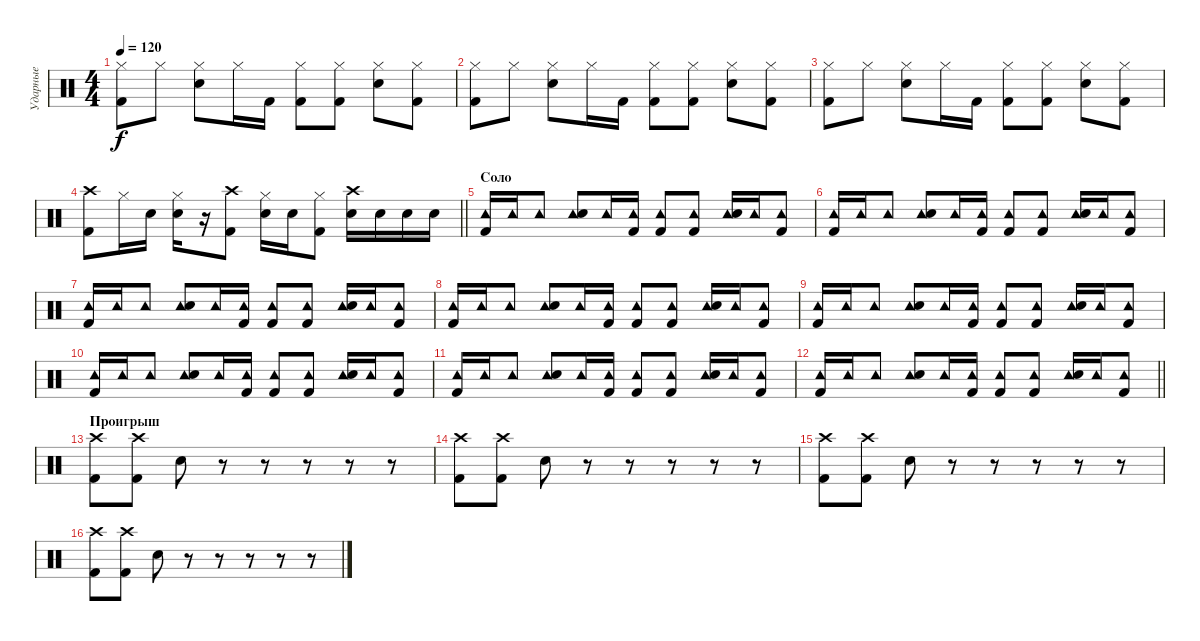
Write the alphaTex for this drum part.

\track ("Ударные" "Ударные") {instrument percussion}
\staff {score}
\articulation defaults
\ts (4 4)
\tempo 120
\clef neutral
\ks c
("Hi-Hat (closed)" "Kick (hit) 2").8{dy f} "Hi-Hat (closed)".8 ("Hi-Hat (closed)" "Snare (hit) 2").8 "Hi-Hat (closed)".16 "Kick (hit) 2".16 ("Hi-Hat (closed)" "Kick (hit) 2").8 ("Hi-Hat (closed)" "Kick (hit) 2").8 ("Hi-Hat (closed)" "Snare (hit) 2").8 ("Hi-Hat (closed)" "Kick (hit) 2").8 |
("Hi-Hat (closed)" "Kick (hit) 2").8 "Hi-Hat (closed)".8 ("Hi-Hat (closed)" "Snare (hit) 2").8 "Hi-Hat (closed)".16 "Kick (hit) 2".16 ("Hi-Hat (closed)" "Kick (hit) 2").8 ("Hi-Hat (closed)" "Kick (hit) 2").8 ("Hi-Hat (closed)" "Snare (hit) 2").8 ("Hi-Hat (closed)" "Kick (hit) 2").8 |
("Hi-Hat (closed)" "Kick (hit) 2").8 "Hi-Hat (closed)".8 ("Hi-Hat (closed)" "Snare (hit) 2").8 "Hi-Hat (closed)".16 "Kick (hit) 2".16 ("Hi-Hat (closed)" "Kick (hit) 2").8 ("Hi-Hat (closed)" "Kick (hit) 2").8 ("Hi-Hat (closed)" "Snare (hit) 2").8 ("Hi-Hat (closed)" "Kick (hit) 2").8 |
\barLineRight lightlight
("Crash high (hit)" "Kick (hit) 2").8 "Hi-Hat (closed)".16 "Snare (hit) 2".16 ("Hi-Hat (closed)" "Snare (hit) 2").16 r.16 ("Crash high (hit)" "Kick (hit) 2").8 ("Hi-Hat (closed)" "Snare (hit) 2").16 "Snare (hit) 2".16 ("Hi-Hat (closed)" "Kick (hit) 2").8 ("Crash high (hit)" "Snare (hit) 2").16 "Snare (hit) 2".16 "Snare (hit) 2".16 "Snare (hit) 2".16 |
\section ("" "Соло")
("Tambourine (hit)" "Kick (hit) 2").16 "Tambourine (hit)".16 "Tambourine (hit)".8 ("Tambourine (hit)" "Snare (hit) 2").8 "Tambourine (hit)".16 ("Tambourine (hit)" "Kick (hit) 2").16 ("Tambourine (hit)" "Kick (hit) 2").8 ("Tambourine (hit)" "Kick (hit) 2").8 ("Tambourine (hit)" "Snare (hit) 2").16 "Tambourine (hit)".16 ("Tambourine (hit)" "Kick (hit) 2").8 |
("Tambourine (hit)" "Kick (hit) 2").16 "Tambourine (hit)".16 "Tambourine (hit)".8 ("Tambourine (hit)" "Snare (hit) 2").8 "Tambourine (hit)".16 ("Tambourine (hit)" "Kick (hit) 2").16 ("Tambourine (hit)" "Kick (hit) 2").8 ("Tambourine (hit)" "Kick (hit) 2").8 ("Tambourine (hit)" "Snare (hit) 2").16 "Tambourine (hit)".16 ("Tambourine (hit)" "Kick (hit) 2").8 |
("Tambourine (hit)" "Kick (hit) 2").16 "Tambourine (hit)".16 "Tambourine (hit)".8 ("Tambourine (hit)" "Snare (hit) 2").8 "Tambourine (hit)".16 ("Tambourine (hit)" "Kick (hit) 2").16 ("Tambourine (hit)" "Kick (hit) 2").8 ("Tambourine (hit)" "Kick (hit) 2").8 ("Tambourine (hit)" "Snare (hit) 2").16 "Tambourine (hit)".16 ("Tambourine (hit)" "Kick (hit) 2").8 |
("Tambourine (hit)" "Kick (hit) 2").16 "Tambourine (hit)".16 "Tambourine (hit)".8 ("Tambourine (hit)" "Snare (hit) 2").8 "Tambourine (hit)".16 ("Tambourine (hit)" "Kick (hit) 2").16 ("Tambourine (hit)" "Kick (hit) 2").8 ("Tambourine (hit)" "Kick (hit) 2").8 ("Tambourine (hit)" "Snare (hit) 2").16 "Tambourine (hit)".16 ("Tambourine (hit)" "Kick (hit) 2").8 |
("Tambourine (hit)" "Kick (hit) 2").16 "Tambourine (hit)".16 "Tambourine (hit)".8 ("Tambourine (hit)" "Snare (hit) 2").8 "Tambourine (hit)".16 ("Tambourine (hit)" "Kick (hit) 2").16 ("Tambourine (hit)" "Kick (hit) 2").8 ("Tambourine (hit)" "Kick (hit) 2").8 ("Tambourine (hit)" "Snare (hit) 2").16 "Tambourine (hit)".16 ("Tambourine (hit)" "Kick (hit) 2").8 |
("Tambourine (hit)" "Kick (hit) 2").16 "Tambourine (hit)".16 "Tambourine (hit)".8 ("Tambourine (hit)" "Snare (hit) 2").8 "Tambourine (hit)".16 ("Tambourine (hit)" "Kick (hit) 2").16 ("Tambourine (hit)" "Kick (hit) 2").8 ("Tambourine (hit)" "Kick (hit) 2").8 ("Tambourine (hit)" "Snare (hit) 2").16 "Tambourine (hit)".16 ("Tambourine (hit)" "Kick (hit) 2").8 |
("Tambourine (hit)" "Kick (hit) 2").16 "Tambourine (hit)".16 "Tambourine (hit)".8 ("Tambourine (hit)" "Snare (hit) 2").8 "Tambourine (hit)".16 ("Tambourine (hit)" "Kick (hit) 2").16 ("Tambourine (hit)" "Kick (hit) 2").8 ("Tambourine (hit)" "Kick (hit) 2").8 ("Tambourine (hit)" "Snare (hit) 2").16 "Tambourine (hit)".16 ("Tambourine (hit)" "Kick (hit) 2").8 |
\barLineRight lightlight
("Tambourine (hit)" "Kick (hit) 2").16 "Tambourine (hit)".16 "Tambourine (hit)".8 ("Tambourine (hit)" "Snare (hit) 2").8 "Tambourine (hit)".16 ("Tambourine (hit)" "Kick (hit) 2").16 ("Tambourine (hit)" "Kick (hit) 2").8 ("Tambourine (hit)" "Kick (hit) 2").8 ("Tambourine (hit)" "Snare (hit) 2").16 "Tambourine (hit)".16 ("Tambourine (hit)" "Kick (hit) 2").8 |
\section ("" "Проигрыш")
("Kick (hit) 2" "Crash high (hit)").8 ("Kick (hit) 2" "Crash high (hit)").8 "Snare (hit) 2".8 r.8 r.8 r.8 r.8 r.8 |
("Kick (hit) 2" "Crash high (hit)").8 ("Kick (hit) 2" "Crash high (hit)").8 "Snare (hit) 2".8 r.8 r.8 r.8 r.8 r.8 |
("Kick (hit) 2" "Crash high (hit)").8 ("Kick (hit) 2" "Crash high (hit)").8 "Snare (hit) 2".8 r.8 r.8 r.8 r.8 r.8 |
("Kick (hit) 2" "Crash high (hit)").8 ("Kick (hit) 2" "Crash high (hit)").8 "Snare (hit) 2".8 r.8 r.8 r.8 r.8 r.8
